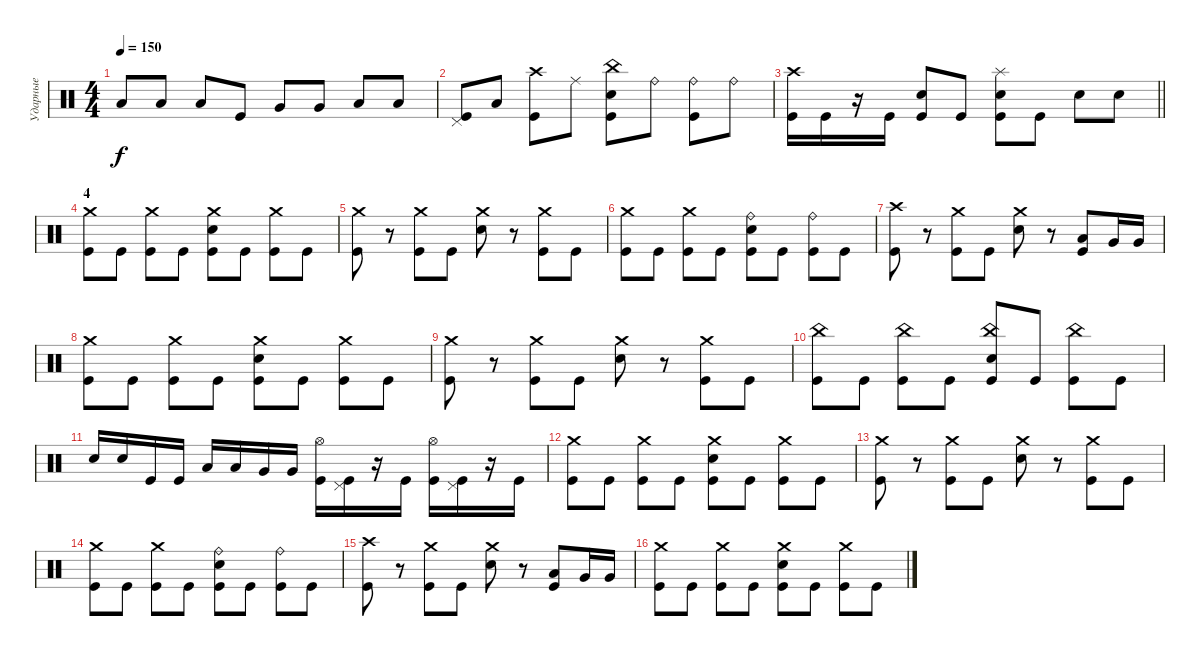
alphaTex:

\track ("Ударные" "Ударные") {instrument percussion}
\staff {score}
\articulation defaults
\ts (4 4)
\tempo 150
\clef neutral
\ks c "Low Tom (hit)".8{dy f} "Low Tom (hit)".8 "Low Tom (hit)".8 "Kick (hit)".8 "Very Low Tom (hit)".8 "Very Low Tom (hit)".8 "Low Floor Tom (hit)".8 "Low Floor Tom (hit)".8
|
("Pedal Hi-Hat (hit)" "Kick (hit)").8 "Low Tom (hit)".8 ("Crash high (hit)" "Kick (hit)").8 "Ride (middle)".8 ("China (hit)" "Electric Snare (hit)" "Kick (hit)").8 "Ride (bell)".8 ("Ride (bell)" "Kick (hit)").8 "Ride (bell)".8 |
\barLineRight lightlight
("Crash high (hit)" "Kick (hit)").16 "Kick (hit)".16 r.16 "Kick (hit)".16 ("Electric Snare (hit)" "Kick (hit)").8 "Kick (hit)".8 ("Splash (hit)" "Electric Snare (hit)" "Kick (hit)").8 "Kick (hit)".8 "Electric Snare (hit)".8 "Electric Snare (hit)".8 |
\section ("" "4")
("Crash medium (hit)" "Kick (hit)").8 "Kick (hit)".8 ("Crash medium (hit)" "Kick (hit)").8 "Kick (hit)".8 ("Crash medium (hit)" "Electric Snare (hit)" "Kick (hit)").8 "Kick (hit)".8 ("Crash medium (hit)" "Kick (hit)").8 "Kick (hit)".8 |
("Crash medium (hit)" "Kick (hit)").8 r.8 ("Crash medium (hit)" "Kick (hit)").8 "Kick (hit)".8 ("Crash medium (hit)" "Electric Snare (hit)").8 r.8 ("Crash medium (hit)" "Kick (hit)").8 "Kick (hit)".8 |
("Crash medium (hit)" "Kick (hit)").8 "Kick (hit)".8 ("Crash medium (hit)" "Kick (hit)").8 "Kick (hit)".8 ("Ride (bell)" "Electric Snare (hit)" "Kick (hit)").8 "Kick (hit)".8 ("Ride (bell)" "Kick (hit)").8 "Kick (hit)".8 |
("Crash high (hit)" "Kick (hit)").8 r.8 ("Crash medium (hit)" "Kick (hit)").8 "Kick (hit)".8 ("Crash medium (hit)" "Electric Snare (hit)").8 r.8 ("Low Tom (hit)" "Kick (hit)").8 "Very Low Tom (hit)".16 "Very Low Tom (hit)".16 |
("Crash medium (hit)" "Kick (hit)").8 "Kick (hit)".8 ("Crash medium (hit)" "Kick (hit)").8 "Kick (hit)".8 ("Crash medium (hit)" "Electric Snare (hit)" "Kick (hit)").8 "Kick (hit)".8 ("Crash medium (hit)" "Kick (hit)").8 "Kick (hit)".8 |
("Crash medium (hit)" "Kick (hit)").8 r.8 ("Crash medium (hit)" "Kick (hit)").8 "Kick (hit)".8 ("Crash medium (hit)" "Electric Snare (hit)").8 r.8 ("Crash medium (hit)" "Kick (hit)").8 "Kick (hit)".8 |
("China (hit)" "Kick (hit)").8 "Kick (hit)".8 ("China (hit)" "Kick (hit)").8 "Kick (hit)".8 ("China (hit)" "Electric Snare (hit)" "Kick (hit)").8 "Kick (hit)".8 ("China (hit)" "Kick (hit)").8 "Kick (hit)".8 |
"Electric Snare (hit)".16 "Electric Snare (hit)".16 "Kick (hit)".16 "Kick (hit)".16 "Low Tom (hit)".16 "Low Tom (hit)".16 "Very Low Tom (hit)".16 "Very Low Tom (hit)".16 ("Hi-Hat (open)" "Kick (hit)").16 ("Pedal Hi-Hat (hit)" "Kick (hit)").16 r.16 "Kick (hit)".16 ("Hi-Hat (open)" "Kick (hit)").16 ("Pedal Hi-Hat (hit)" "Kick (hit)").16 r.16 "Kick (hit)".16 |
("Crash medium (hit)" "Kick (hit)").8 "Kick (hit)".8 ("Crash medium (hit)" "Kick (hit)").8 "Kick (hit)".8 ("Crash medium (hit)" "Electric Snare (hit)" "Kick (hit)").8 "Kick (hit)".8 ("Crash medium (hit)" "Kick (hit)").8 "Kick (hit)".8 |
("Crash medium (hit)" "Kick (hit)").8 r.8 ("Crash medium (hit)" "Kick (hit)").8 "Kick (hit)".8 ("Crash medium (hit)" "Electric Snare (hit)").8 r.8 ("Crash medium (hit)" "Kick (hit)").8 "Kick (hit)".8 |
("Crash medium (hit)" "Kick (hit)").8 "Kick (hit)".8 ("Crash medium (hit)" "Kick (hit)").8 "Kick (hit)".8 ("Ride (bell)" "Electric Snare (hit)" "Kick (hit)").8 "Kick (hit)".8 ("Ride (bell)" "Kick (hit)").8 "Kick (hit)".8 |
("Crash high (hit)" "Kick (hit)").8 r.8 ("Crash medium (hit)" "Kick (hit)").8 "Kick (hit)".8 ("Crash medium (hit)" "Electric Snare (hit)").8 r.8 ("Low Tom (hit)" "Kick (hit)").8 "Very Low Tom (hit)".16 "Very Low Tom (hit)".16 |
("Crash medium (hit)" "Kick (hit)").8 "Kick (hit)".8 ("Crash medium (hit)" "Kick (hit)").8 "Kick (hit)".8 ("Crash medium (hit)" "Electric Snare (hit)" "Kick (hit)").8 "Kick (hit)".8 ("Crash medium (hit)" "Kick (hit)").8 "Kick (hit)".8
